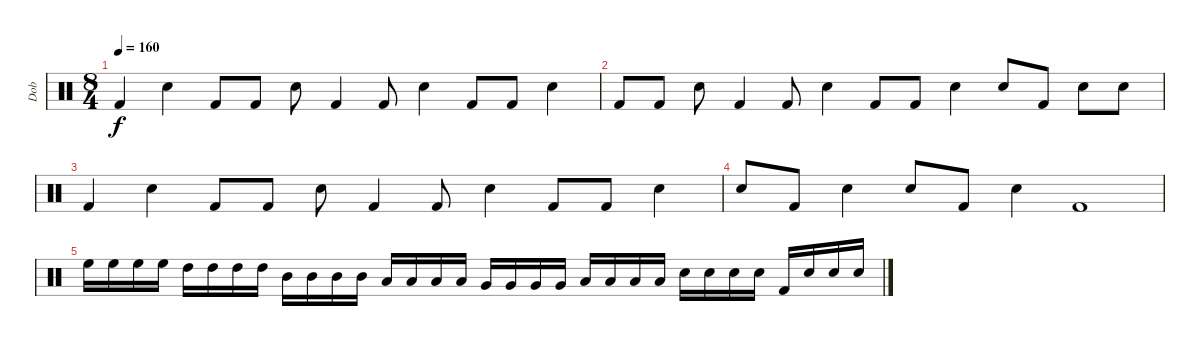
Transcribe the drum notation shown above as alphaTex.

\track ("Dob" "Dob") {instrument percussion}
\staff {score}
\articulation defaults
\ts (8 4)
\tempo 160
\clef neutral
\ks c "Kick (hit) 2".4{dy f} "Snare (hit) 2".4 "Kick (hit) 2".8 "Kick (hit) 2".8 "Snare (hit) 2".8 "Kick (hit) 2".4 "Kick (hit) 2".8 "Snare (hit) 2".4 "Kick (hit) 2".8 "Kick (hit) 2".8 "Snare (hit) 2".4
|
"Kick (hit) 2".8 "Kick (hit) 2".8 "Snare (hit) 2".8 "Kick (hit) 2".4 "Kick (hit) 2".8 "Snare (hit) 2".4 "Kick (hit) 2".8 "Kick (hit) 2".8 "Snare (hit) 2".4 "Snare (hit) 2".8 "Kick (hit) 2".8 "Snare (hit) 2".8 "Snare (hit) 2".8 |
"Kick (hit) 2".4 "Snare (hit) 2".4 "Kick (hit) 2".8 "Kick (hit) 2".8 "Snare (hit) 2".8 "Kick (hit) 2".4 "Kick (hit) 2".8 "Snare (hit) 2".4 "Kick (hit) 2".8 "Kick (hit) 2".8 "Snare (hit) 2".4 |
"Snare (hit) 2".8 "Kick (hit) 2".8 "Snare (hit) 2".4 "Snare (hit) 2".8 "Kick (hit) 2".8 "Snare (hit) 2".4 "Kick (hit) 2".1 |
"High Floor Tom (hit)".16 "High Floor Tom (hit)".16 "High Floor Tom (hit)".16 "High Floor Tom (hit)".16 "High Tom (hit)".16 "High Tom (hit)".16 "High Tom (hit)".16 "High Tom (hit)".16 "Mid Tom (hit)".16 "Mid Tom (hit)".16 "Mid Tom (hit)".16 "Mid Tom (hit)".16 "Low Tom (hit)".16 "Low Tom (hit)".16 "Low Tom (hit)".16 "Low Tom (hit)".16 "Very Low Tom (hit)".16 "Very Low Tom (hit)".16 "Very Low Tom (hit)".16 "Very Low Tom (hit)".16 "Low Floor Tom (hit)".16 "Low Floor Tom (hit)".16 "Low Floor Tom (hit)".16 "Low Floor Tom (hit)".16 "Snare (hit) 2".16 "Snare (hit) 2".16 "Snare (hit) 2".16 "Snare (hit) 2".16 "Kick (hit) 2".16 "Snare (hit) 2".16 "Snare (hit) 2".16 "Snare (hit) 2".16
